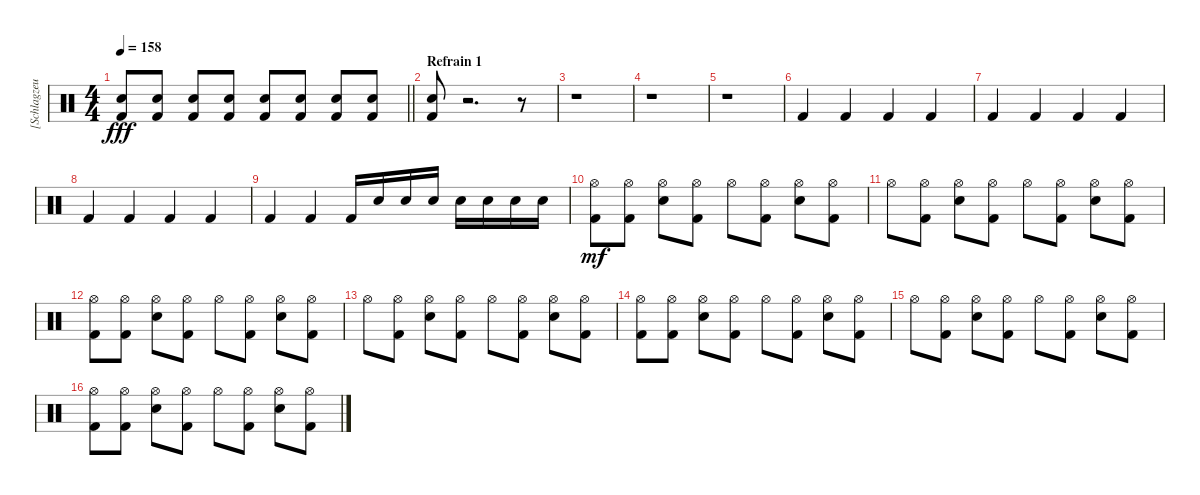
\track ("[Schlagzeug]" "[Schlagzeu") {instrument percussion}
\staff {score}
\articulation defaults
\ts (4 4)
\tempo 158
\clef neutral
\barLineRight lightlight
\ks c
("Electric Snare (hit)" "Kick (hit) 2").8{dy fff} ("Electric Snare (hit)" "Kick (hit) 2").8 ("Electric Snare (hit)" "Kick (hit) 2").8 ("Electric Snare (hit)" "Kick (hit) 2").8 ("Electric Snare (hit)" "Kick (hit) 2").8 ("Electric Snare (hit)" "Kick (hit) 2").8 ("Electric Snare (hit)" "Kick (hit) 2").8 ("Electric Snare (hit)" "Kick (hit) 2").8 |
\section ("" "Refrain 1")
("Electric Snare (hit)" "Kick (hit) 2").8 r.2{d} r.8 |
r.1 |
r.1 |
r.1 |
"Kick (hit) 2".4 "Kick (hit) 2".4 "Kick (hit) 2".4 "Kick (hit) 2".4 |
"Kick (hit) 2".4 "Kick (hit) 2".4 "Kick (hit) 2".4 "Kick (hit) 2".4 |
"Kick (hit) 2".4 "Kick (hit) 2".4 "Kick (hit) 2".4 "Kick (hit) 2".4 |
"Kick (hit) 2".4 "Kick (hit) 2".4 "Kick (hit) 2".16 "Electric Snare (hit)".16 "Electric Snare (hit)".16 "Electric Snare (hit)".16 "Electric Snare (hit)".16 "Electric Snare (hit)".16 "Electric Snare (hit)".16 "Electric Snare (hit)".16 |
("Kick (hit) 2" "Hi-Hat (open)").8{dy mf} ("Kick (hit) 2" "Hi-Hat (open)").8 ("Electric Snare (hit)" "Hi-Hat (open)").8 ("Kick (hit) 2" "Hi-Hat (open)").8 "Hi-Hat (open)".8 ("Kick (hit) 2" "Hi-Hat (open)").8 ("Electric Snare (hit)" "Hi-Hat (open)").8 ("Kick (hit) 2" "Hi-Hat (open)").8 |
"Hi-Hat (open)".8 ("Kick (hit) 2" "Hi-Hat (open)").8 ("Electric Snare (hit)" "Hi-Hat (open)").8 ("Kick (hit) 2" "Hi-Hat (open)").8 "Hi-Hat (open)".8 ("Kick (hit) 2" "Hi-Hat (open)").8 ("Electric Snare (hit)" "Hi-Hat (open)").8 ("Kick (hit) 2" "Hi-Hat (open)").8 |
("Kick (hit) 2" "Hi-Hat (open)").8 ("Kick (hit) 2" "Hi-Hat (open)").8 ("Electric Snare (hit)" "Hi-Hat (open)").8 ("Kick (hit) 2" "Hi-Hat (open)").8 "Hi-Hat (open)".8 ("Kick (hit) 2" "Hi-Hat (open)").8 ("Electric Snare (hit)" "Hi-Hat (open)").8 ("Kick (hit) 2" "Hi-Hat (open)").8 |
"Hi-Hat (open)".8 ("Kick (hit) 2" "Hi-Hat (open)").8 ("Electric Snare (hit)" "Hi-Hat (open)").8 ("Kick (hit) 2" "Hi-Hat (open)").8 "Hi-Hat (open)".8 ("Kick (hit) 2" "Hi-Hat (open)").8 ("Electric Snare (hit)" "Hi-Hat (open)").8 ("Kick (hit) 2" "Hi-Hat (open)").8 |
("Kick (hit) 2" "Hi-Hat (open)").8 ("Kick (hit) 2" "Hi-Hat (open)").8 ("Electric Snare (hit)" "Hi-Hat (open)").8 ("Kick (hit) 2" "Hi-Hat (open)").8 "Hi-Hat (open)".8 ("Kick (hit) 2" "Hi-Hat (open)").8 ("Electric Snare (hit)" "Hi-Hat (open)").8 ("Kick (hit) 2" "Hi-Hat (open)").8 |
"Hi-Hat (open)".8 ("Kick (hit) 2" "Hi-Hat (open)").8 ("Electric Snare (hit)" "Hi-Hat (open)").8 ("Kick (hit) 2" "Hi-Hat (open)").8 "Hi-Hat (open)".8 ("Kick (hit) 2" "Hi-Hat (open)").8 ("Electric Snare (hit)" "Hi-Hat (open)").8 ("Kick (hit) 2" "Hi-Hat (open)").8 |
("Kick (hit) 2" "Hi-Hat (open)").8 ("Kick (hit) 2" "Hi-Hat (open)").8 ("Electric Snare (hit)" "Hi-Hat (open)").8 ("Kick (hit) 2" "Hi-Hat (open)").8 "Hi-Hat (open)".8 ("Kick (hit) 2" "Hi-Hat (open)").8 ("Electric Snare (hit)" "Hi-Hat (open)").8 ("Kick (hit) 2" "Hi-Hat (open)").8
